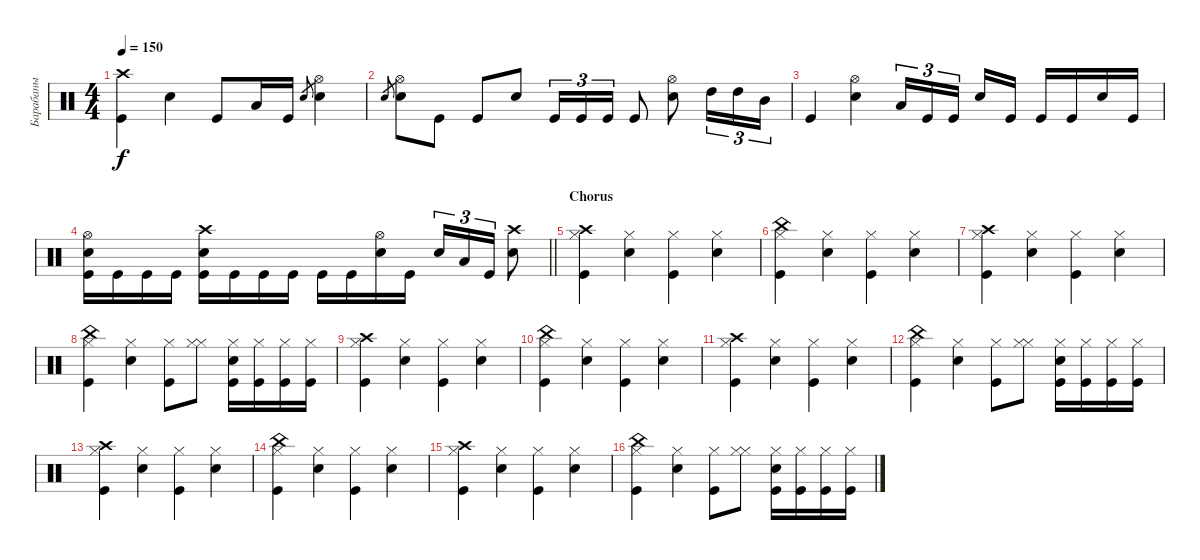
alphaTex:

\track ("Барабаны" "Барабаны") {instrument percussion}
\staff {score}
\articulation defaults
\ts (4 4)
\tempo 150
\clef neutral
\ks c
("Crash high (hit)" "Kick (hit)").4{dy f} "Snare (hit) 2".4 "Kick (hit)".8 "Low Tom (hit)".16 "Kick (hit)".16 "Snare (hit) 2".8{gr} ("Hi-Hat (open)" "Snare (hit) 2").4 |
"Snare (hit) 2".8{gr} ("Hi-Hat (open)" "Snare (hit) 2").8 "Kick (hit)".8 "Kick (hit)".8 "Snare (hit) 2".8 "Kick (hit)".16{tu (3 2)} "Kick (hit)".16{tu (3 2)} "Kick (hit)".16{tu (3 2)} "Kick (hit)".8 ("Hi-Hat (open)" "Snare (hit) 2").8 "High Tom (hit)".16{tu (3 2)} "High Tom (hit)".16{tu (3 2)} "Mid Tom (hit)".16{tu (3 2)} |
"Kick (hit)".4 ("Hi-Hat (open)" "Snare (hit) 2").4 "Low Tom (hit)".16{tu (3 2)} "Kick (hit)".16{tu (3 2)} "Kick (hit)".16{tu (3 2) beam splitsecondary} "Snare (hit) 2".16 "Kick (hit)".16 "Kick (hit)".16 "Kick (hit)".16 "Snare (hit) 2".16 "Kick (hit)".16 |
\barLineRight lightlight
("Hi-Hat (open)" "Snare (hit) 2" "Kick (hit)").16 "Kick (hit)".16 "Kick (hit)".16 "Kick (hit)".16 ("Crash high (hit)" "Snare (hit) 2" "Kick (hit)").16 "Kick (hit)".16 "Kick (hit)".16 "Kick (hit)".16 "Kick (hit)".16 "Kick (hit)".16 ("Hi-Hat (open)" "Snare (hit) 2").16 "Kick (hit)".16 "Snare (hit) 2".16{tu (3 2)} "Low Tom (hit)".16{tu (3 2)} "Kick (hit)".16{tu (3 2)} ("Crash high (hit)" "Snare (hit) 2").8 |
\section ("" "Chorus")
("Hi-Hat (closed)" "Kick (hit)" "Crash high (hit)").4 ("Hi-Hat (closed)" "Snare (hit) 2").4 ("Hi-Hat (closed)" "Kick (hit)").4 ("Hi-Hat (closed)" "Snare (hit) 2").4 |
("Hi-Hat (closed)" "Kick (hit)" "China (hit)").4 ("Hi-Hat (closed)" "Snare (hit) 2").4 ("Hi-Hat (closed)" "Kick (hit)").4 ("Hi-Hat (closed)" "Snare (hit) 2").4 |
("Hi-Hat (closed)" "Kick (hit)" "Crash high (hit)").4 ("Hi-Hat (closed)" "Snare (hit) 2").4 ("Hi-Hat (closed)" "Kick (hit)").4 ("Hi-Hat (closed)" "Snare (hit) 2").4 |
("Hi-Hat (closed)" "Kick (hit)" "China (hit)").4 ("Hi-Hat (closed)" "Snare (hit) 2").4 ("Hi-Hat (closed)" "Kick (hit)").8 ("Hi-Hat (closed)" "Hi-Hat (closed)").8 ("Snare (hit) 2" "Kick (hit)" "Hi-Hat (closed)").16 ("Kick (hit)" "Hi-Hat (closed)").16 ("Kick (hit)" "Hi-Hat (closed)").16 ("Kick (hit)" "Hi-Hat (closed)").16 |
("Hi-Hat (closed)" "Kick (hit)" "Crash high (hit)").4 ("Hi-Hat (closed)" "Snare (hit) 2").4 ("Hi-Hat (closed)" "Kick (hit)").4 ("Hi-Hat (closed)" "Snare (hit) 2").4 |
("Hi-Hat (closed)" "Kick (hit)" "China (hit)").4 ("Hi-Hat (closed)" "Snare (hit) 2").4 ("Hi-Hat (closed)" "Kick (hit)").4 ("Hi-Hat (closed)" "Snare (hit) 2").4 |
("Hi-Hat (closed)" "Kick (hit)" "Crash high (hit)").4 ("Hi-Hat (closed)" "Snare (hit) 2").4 ("Hi-Hat (closed)" "Kick (hit)").4 ("Hi-Hat (closed)" "Snare (hit) 2").4 |
("Hi-Hat (closed)" "Kick (hit)" "China (hit)").4 ("Hi-Hat (closed)" "Snare (hit) 2").4 ("Hi-Hat (closed)" "Kick (hit)").8 ("Hi-Hat (closed)" "Hi-Hat (closed)").8 ("Snare (hit) 2" "Kick (hit)" "Hi-Hat (closed)").16 ("Kick (hit)" "Hi-Hat (closed)").16 ("Kick (hit)" "Hi-Hat (closed)").16 ("Kick (hit)" "Hi-Hat (closed)").16 |
("Hi-Hat (closed)" "Kick (hit)" "Crash high (hit)").4 ("Hi-Hat (closed)" "Snare (hit) 2").4 ("Hi-Hat (closed)" "Kick (hit)").4 ("Hi-Hat (closed)" "Snare (hit) 2").4 |
("Hi-Hat (closed)" "Kick (hit)" "China (hit)").4 ("Hi-Hat (closed)" "Snare (hit) 2").4 ("Hi-Hat (closed)" "Kick (hit)").4 ("Hi-Hat (closed)" "Snare (hit) 2").4 |
("Hi-Hat (closed)" "Kick (hit)" "Crash high (hit)").4 ("Hi-Hat (closed)" "Snare (hit) 2").4 ("Hi-Hat (closed)" "Kick (hit)").4 ("Hi-Hat (closed)" "Snare (hit) 2").4 |
("Hi-Hat (closed)" "Kick (hit)" "China (hit)").4 ("Hi-Hat (closed)" "Snare (hit) 2").4 ("Hi-Hat (closed)" "Kick (hit)").8 ("Hi-Hat (closed)" "Hi-Hat (closed)").8 ("Snare (hit) 2" "Kick (hit)" "Hi-Hat (closed)").16 ("Kick (hit)" "Hi-Hat (closed)").16 ("Kick (hit)" "Hi-Hat (closed)").16 ("Kick (hit)" "Hi-Hat (closed)").16
